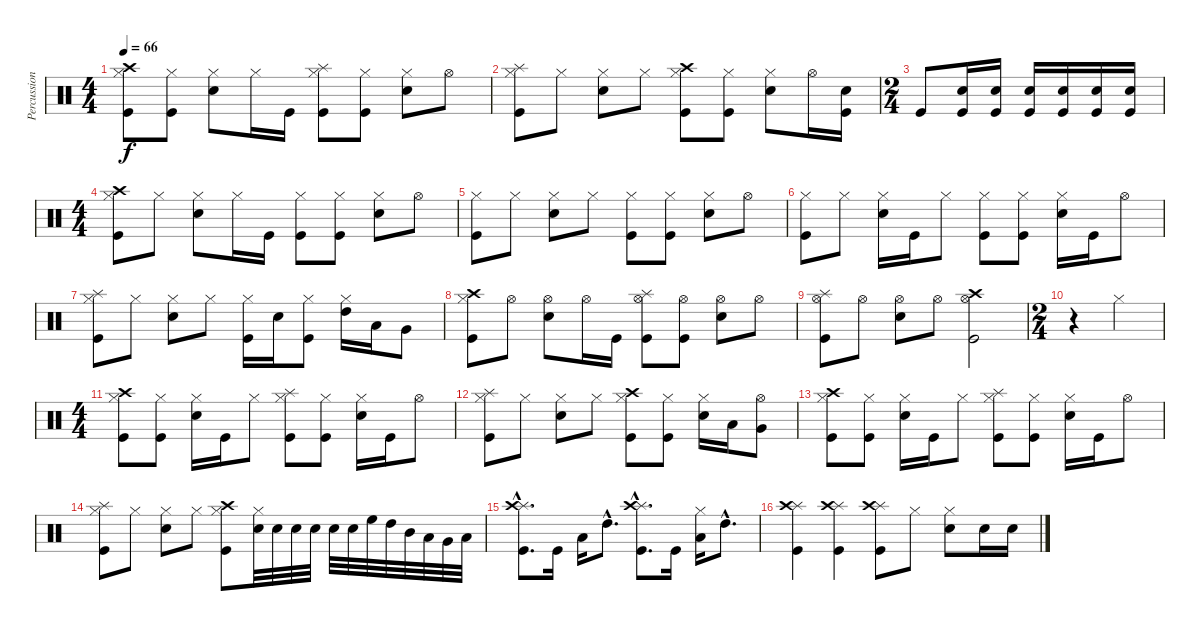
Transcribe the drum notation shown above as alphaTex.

\track ("Percussion" "Percussion") {instrument percussion}
\staff {score}
\articulation defaults
\ts (4 4)
\tempo 66
\clef neutral
\ks c
("Hi-Hat (closed)" "Kick (hit)" "Crash high (hit)").8{dy f} ("Hi-Hat (closed)" "Kick (hit)").8 ("Hi-Hat (closed)" "Electric Snare (hit)").8 "Hi-Hat (closed)".16 "Kick (hit)".16 ("Hi-Hat (closed)" "Kick (hit)" "Splash (hit)").8 ("Hi-Hat (closed)" "Kick (hit)").8 ("Hi-Hat (closed)" "Electric Snare (hit)").8 "Hi-Hat (open)".8 |
("Hi-Hat (closed)" "Kick (hit)" "Splash (hit)").8 "Hi-Hat (closed)".8 ("Hi-Hat (closed)" "Electric Snare (hit)").8 "Hi-Hat (closed)".8 ("Hi-Hat (closed)" "Kick (hit)" "Crash high (hit)").8 ("Hi-Hat (closed)" "Kick (hit)").8 ("Hi-Hat (closed)" "Electric Snare (hit)").8 "Hi-Hat (open)".16 ("Electric Snare (hit)" "Kick (hit)").16 |
\ts (2 4)
"Kick (hit)".8 ("Snare (hit) 2" "Kick (hit)").16 ("Snare (hit) 2" "Kick (hit)").16 ("Snare (hit) 2" "Kick (hit)").16 ("Snare (hit) 2" "Kick (hit)").16 ("Snare (hit) 2" "Kick (hit)").16 ("Snare (hit) 2" "Kick (hit)").16 |
\ts (4 4)
("Hi-Hat (closed)" "Kick (hit)" "Crash high (hit)").8 "Hi-Hat (closed)".8 ("Hi-Hat (closed)" "Electric Snare (hit)").8 "Hi-Hat (closed)".16 "Kick (hit)".16 ("Hi-Hat (closed)" "Kick (hit)").8 ("Hi-Hat (closed)" "Kick (hit)").8 ("Hi-Hat (closed)" "Electric Snare (hit)").8 "Hi-Hat (open)".8 |
("Hi-Hat (closed)" "Kick (hit)").8 "Hi-Hat (closed)".8 ("Hi-Hat (closed)" "Electric Snare (hit)").8 "Hi-Hat (closed)".8 ("Hi-Hat (closed)" "Kick (hit)").8 ("Hi-Hat (closed)" "Kick (hit)").8 ("Hi-Hat (closed)" "Electric Snare (hit)").8 "Hi-Hat (open)".8 |
("Hi-Hat (closed)" "Kick (hit)").8 "Hi-Hat (closed)".8 ("Hi-Hat (closed)" "Electric Snare (hit)").16 "Kick (hit)".16 "Hi-Hat (closed)".8 ("Hi-Hat (closed)" "Kick (hit)").8 ("Hi-Hat (closed)" "Kick (hit)").8 ("Hi-Hat (closed)" "Electric Snare (hit)").16 "Kick (hit)".16 "Hi-Hat (open)".8 |
("Hi-Hat (closed)" "Kick (hit)" "Splash (hit)").8 "Hi-Hat (closed)".8 ("Hi-Hat (closed)" "Electric Snare (hit)").8 "Hi-Hat (closed)".8 ("Hi-Hat (closed)" "Kick (hit)").16 "Electric Snare (hit)".16 ("Hi-Hat (closed)" "Kick (hit)").8 ("Hi-Hat (closed)" "High Tom (hit)").16 "Low Tom (hit)".16 "Very Low Tom (hit)".8 |
("Hi-Hat (closed)" "Kick (hit)" "Crash high (hit)").8 "Hi-Hat (open)".8 ("Hi-Hat (open)" "Electric Snare (hit)").8 "Hi-Hat (open)".16 "Kick (hit)".16 ("Hi-Hat (open)" "Kick (hit)" "Splash (hit)").8 ("Hi-Hat (open)" "Kick (hit)").8 ("Hi-Hat (open)" "Electric Snare (hit)").8 "Hi-Hat (open)".8 |
("Hi-Hat (open)" "Kick (hit)" "Splash (hit)").8 "Hi-Hat (open)".8 ("Hi-Hat (open)" "Electric Snare (hit)").8 "Hi-Hat (open)".8 ("Hi-Hat (open)" "Kick (hit)" "Crash high (hit)").2 |
\ts (2 4)
r.4 "Hi-Hat (closed)".4 |
\ts (4 4)
("Hi-Hat (closed)" "Kick (hit)" "Crash high (hit)").8 ("Hi-Hat (closed)" "Kick (hit)").8 ("Hi-Hat (closed)" "Electric Snare (hit)").16 "Kick (hit)".16 "Hi-Hat (closed)".8 ("Hi-Hat (closed)" "Kick (hit)" "Splash (hit)").8 ("Hi-Hat (closed)" "Kick (hit)").8 ("Hi-Hat (closed)" "Electric Snare (hit)").16 "Kick (hit)".16 "Hi-Hat (open)".8 |
("Hi-Hat (closed)" "Kick (hit)" "Splash (hit)").8 "Hi-Hat (closed)".8 ("Hi-Hat (closed)" "Electric Snare (hit)").8 "Hi-Hat (closed)".8 ("Hi-Hat (closed)" "Kick (hit)" "Crash high (hit)").8 ("Hi-Hat (closed)" "Kick (hit)").8 ("Hi-Hat (closed)" "Electric Snare (hit)").16 "Low Tom (hit)".16 ("Hi-Hat (open)" "Very Low Tom (hit)").8 |
("Hi-Hat (closed)" "Kick (hit)" "Crash high (hit)").8 ("Hi-Hat (closed)" "Kick (hit)").8 ("Hi-Hat (closed)" "Electric Snare (hit)").16 "Kick (hit)".16 "Hi-Hat (closed)".8 ("Hi-Hat (closed)" "Kick (hit)" "Splash (hit)").8 ("Hi-Hat (closed)" "Kick (hit)").8 ("Hi-Hat (closed)" "Electric Snare (hit)").16 "Kick (hit)".16 "Hi-Hat (open)".8 |
("Hi-Hat (closed)" "Kick (hit)" "Splash (hit)").8 "Hi-Hat (closed)".8 ("Hi-Hat (closed)" "Electric Snare (hit)").8 "Hi-Hat (closed)".8 ("Hi-Hat (closed)" "Kick (hit)" "Crash high (hit)").8 ("Hi-Hat (closed)" "Snare (hit) 2").32 "Snare (hit) 2".32 "Snare (hit) 2".32 "Snare (hit) 2".32 "Snare (hit) 2".32 "Snare (hit) 2".32 "High Floor Tom (hit)".32 "High Tom (hit)".32 "Mid Tom (hit)".32 "Low Tom (hit)".32 "Very Low Tom (hit)".32 "Low Floor Tom (hit)".32 |
("Kick (hit)"{hac} "Splash (hit)"{hac} "Crash high (hit)"{hac}).8{d} "Kick (hit)".16 "Low Floor Tom (hit)".16 "High Tom (hit)"{hac}.8{d} ("Kick (hit)"{hac} "Splash (hit)"{hac} "Crash high (hit)"{hac}).8{d} "Kick (hit)".16 ("Hi-Hat (closed)" "Low Floor Tom (hit)").16 "High Tom (hit)"{hac}.8{d} |
("Kick (hit)" "Splash (hit)" "Crash high (hit)").4 ("Kick (hit)" "Splash (hit)" "Crash high (hit)").4 ("Kick (hit)" "Splash (hit)" "Crash high (hit)").8 "Hi-Hat (closed)".8 ("Hi-Hat (closed)" "Electric Snare (hit)").8 "Snare (hit) 2".16 "Snare (hit) 2".16
